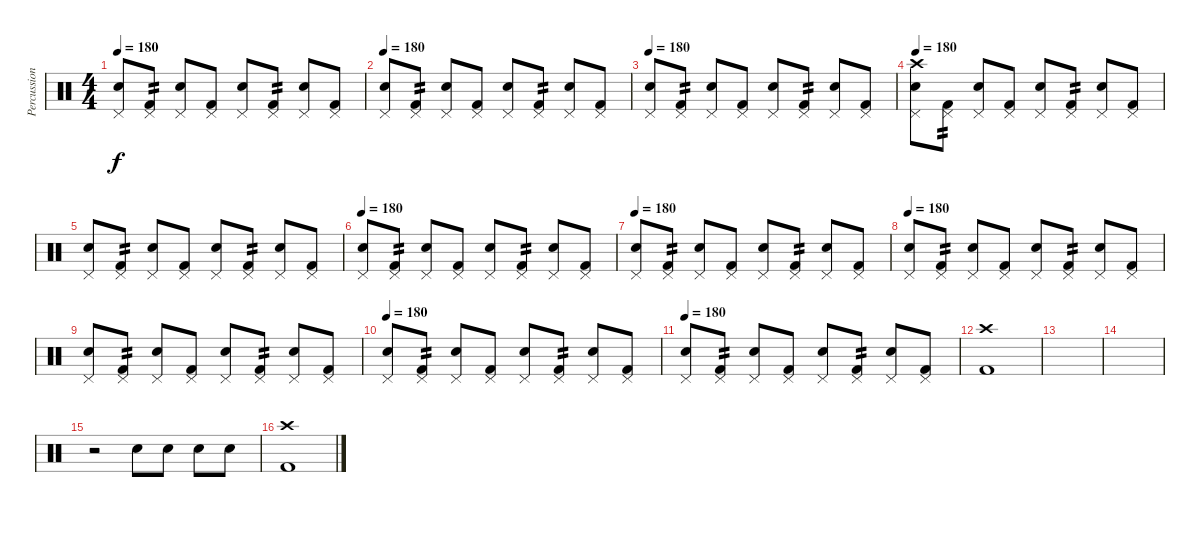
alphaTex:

\track ("Percussion" "Percussion") {instrument percussion}
\staff {score}
\articulation defaults
\ts (4 4)
\tempo 180
\clef neutral
\ks c
("Pedal Hi-Hat (hit)" "Electric Snare (hit)").8{dy f} ("Pedal Hi-Hat (hit)" "Kick (hit) 2").8{tp 2} ("Pedal Hi-Hat (hit)" "Electric Snare (hit)").8 ("Pedal Hi-Hat (hit)" "Kick (hit) 2").8 ("Pedal Hi-Hat (hit)" "Electric Snare (hit)").8 ("Pedal Hi-Hat (hit)" "Kick (hit) 2").8{tp 2} ("Pedal Hi-Hat (hit)" "Electric Snare (hit)").8 ("Pedal Hi-Hat (hit)" "Kick (hit) 2").8 |
\tempo 180
("Pedal Hi-Hat (hit)" "Electric Snare (hit)").8 ("Pedal Hi-Hat (hit)" "Kick (hit) 2").8{tp 2} ("Pedal Hi-Hat (hit)" "Electric Snare (hit)").8 ("Pedal Hi-Hat (hit)" "Kick (hit) 2").8 ("Pedal Hi-Hat (hit)" "Electric Snare (hit)").8 ("Pedal Hi-Hat (hit)" "Kick (hit) 2").8{tp 2} ("Pedal Hi-Hat (hit)" "Electric Snare (hit)").8 ("Pedal Hi-Hat (hit)" "Kick (hit) 2").8 |
\tempo 180
("Pedal Hi-Hat (hit)" "Electric Snare (hit)").8 ("Pedal Hi-Hat (hit)" "Kick (hit) 2").8{tp 2} ("Pedal Hi-Hat (hit)" "Electric Snare (hit)").8 ("Pedal Hi-Hat (hit)" "Kick (hit) 2").8 ("Pedal Hi-Hat (hit)" "Electric Snare (hit)").8 ("Pedal Hi-Hat (hit)" "Kick (hit) 2").8{tp 2} ("Pedal Hi-Hat (hit)" "Electric Snare (hit)").8 ("Pedal Hi-Hat (hit)" "Kick (hit) 2").8 |
\tempo 180
("Pedal Hi-Hat (hit)" "Crash high (hit)" "Electric Snare (hit)").8 ("Pedal Hi-Hat (hit)" "Kick (hit) 2").8{tp 2} ("Pedal Hi-Hat (hit)" "Electric Snare (hit)").8 ("Pedal Hi-Hat (hit)" "Kick (hit) 2").8 ("Pedal Hi-Hat (hit)" "Electric Snare (hit)").8 ("Pedal Hi-Hat (hit)" "Kick (hit) 2").8{tp 2} ("Pedal Hi-Hat (hit)" "Electric Snare (hit)").8 ("Pedal Hi-Hat (hit)" "Kick (hit) 2").8 |
("Pedal Hi-Hat (hit)" "Electric Snare (hit)").8 ("Pedal Hi-Hat (hit)" "Kick (hit) 2").8{tp 2} ("Pedal Hi-Hat (hit)" "Electric Snare (hit)").8 ("Pedal Hi-Hat (hit)" "Kick (hit) 2").8 ("Pedal Hi-Hat (hit)" "Electric Snare (hit)").8 ("Pedal Hi-Hat (hit)" "Kick (hit) 2").8{tp 2} ("Pedal Hi-Hat (hit)" "Electric Snare (hit)").8 ("Pedal Hi-Hat (hit)" "Kick (hit) 2").8 |
\tempo 180
("Pedal Hi-Hat (hit)" "Electric Snare (hit)").8 ("Pedal Hi-Hat (hit)" "Kick (hit) 2").8{tp 2} ("Pedal Hi-Hat (hit)" "Electric Snare (hit)").8 ("Pedal Hi-Hat (hit)" "Kick (hit) 2").8 ("Pedal Hi-Hat (hit)" "Electric Snare (hit)").8 ("Pedal Hi-Hat (hit)" "Kick (hit) 2").8{tp 2} ("Pedal Hi-Hat (hit)" "Electric Snare (hit)").8 ("Pedal Hi-Hat (hit)" "Kick (hit) 2").8 |
\tempo 180
("Pedal Hi-Hat (hit)" "Electric Snare (hit)").8 ("Pedal Hi-Hat (hit)" "Kick (hit) 2").8{tp 2} ("Pedal Hi-Hat (hit)" "Electric Snare (hit)").8 ("Pedal Hi-Hat (hit)" "Kick (hit) 2").8 ("Pedal Hi-Hat (hit)" "Electric Snare (hit)").8 ("Pedal Hi-Hat (hit)" "Kick (hit) 2").8{tp 2} ("Pedal Hi-Hat (hit)" "Electric Snare (hit)").8 ("Pedal Hi-Hat (hit)" "Kick (hit) 2").8 |
\tempo 180
("Pedal Hi-Hat (hit)" "Electric Snare (hit)").8 ("Pedal Hi-Hat (hit)" "Kick (hit) 2").8{tp 2} ("Pedal Hi-Hat (hit)" "Electric Snare (hit)").8 ("Pedal Hi-Hat (hit)" "Kick (hit) 2").8 ("Pedal Hi-Hat (hit)" "Electric Snare (hit)").8 ("Pedal Hi-Hat (hit)" "Kick (hit) 2").8{tp 2} ("Pedal Hi-Hat (hit)" "Electric Snare (hit)").8 ("Pedal Hi-Hat (hit)" "Kick (hit) 2").8 |
("Pedal Hi-Hat (hit)" "Electric Snare (hit)").8 ("Pedal Hi-Hat (hit)" "Kick (hit) 2").8{tp 2} ("Pedal Hi-Hat (hit)" "Electric Snare (hit)").8 ("Pedal Hi-Hat (hit)" "Kick (hit) 2").8 ("Pedal Hi-Hat (hit)" "Electric Snare (hit)").8 ("Pedal Hi-Hat (hit)" "Kick (hit) 2").8{tp 2} ("Pedal Hi-Hat (hit)" "Electric Snare (hit)").8 ("Pedal Hi-Hat (hit)" "Kick (hit) 2").8 |
\tempo 180
("Pedal Hi-Hat (hit)" "Electric Snare (hit)").8 ("Pedal Hi-Hat (hit)" "Kick (hit) 2").8{tp 2} ("Pedal Hi-Hat (hit)" "Electric Snare (hit)").8 ("Pedal Hi-Hat (hit)" "Kick (hit) 2").8 ("Pedal Hi-Hat (hit)" "Electric Snare (hit)").8 ("Pedal Hi-Hat (hit)" "Kick (hit) 2").8{tp 2} ("Pedal Hi-Hat (hit)" "Electric Snare (hit)").8 ("Pedal Hi-Hat (hit)" "Kick (hit) 2").8 |
\tempo 180
("Pedal Hi-Hat (hit)" "Electric Snare (hit)").8 ("Pedal Hi-Hat (hit)" "Kick (hit) 2").8{tp 2} ("Pedal Hi-Hat (hit)" "Electric Snare (hit)").8 ("Pedal Hi-Hat (hit)" "Kick (hit) 2").8 ("Pedal Hi-Hat (hit)" "Electric Snare (hit)").8 ("Pedal Hi-Hat (hit)" "Kick (hit) 2").8{tp 2} ("Pedal Hi-Hat (hit)" "Electric Snare (hit)").8 ("Pedal Hi-Hat (hit)" "Kick (hit) 2").8 |
("Crash high (hit)" "Kick (hit) 2").1 |
|
|
r.2 "Electric Snare (hit)".8 "Electric Snare (hit)".8 "Electric Snare (hit)".8 "Electric Snare (hit)".8 |
("Kick (hit) 2" "Crash high (hit)").1
